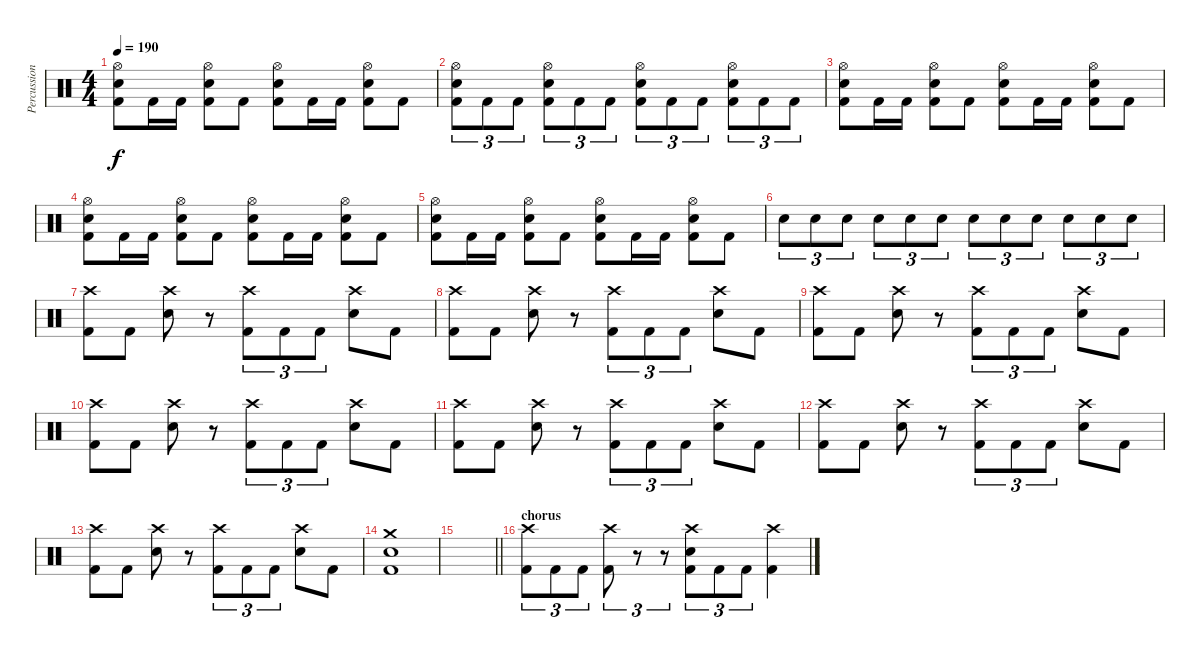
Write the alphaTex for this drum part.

\track ("Percussion" "Percussion") {instrument percussion}
\staff {score}
\articulation defaults
\ts (4 4)
\tempo 190
\clef neutral
\ks c
("Hi-Hat (open)" "Electric Snare (hit)" "Kick (hit) 2").8{dy f} "Kick (hit) 2".16 "Kick (hit) 2".16 ("Hi-Hat (open)" "Electric Snare (hit)" "Kick (hit) 2").8 "Kick (hit) 2".8 ("Hi-Hat (open)" "Electric Snare (hit)" "Kick (hit) 2").8 "Kick (hit) 2".16 "Kick (hit) 2".16 ("Hi-Hat (open)" "Electric Snare (hit)" "Kick (hit) 2").8 "Kick (hit) 2".8 |
("Hi-Hat (open)" "Electric Snare (hit)" "Kick (hit) 2").8{tu (3 2)} "Kick (hit) 2".8{tu (3 2)} "Kick (hit) 2".8{tu (3 2)} ("Hi-Hat (open)" "Electric Snare (hit)" "Kick (hit) 2").8{tu (3 2)} "Kick (hit) 2".8{tu (3 2)} "Kick (hit) 2".8{tu (3 2)} ("Hi-Hat (open)" "Electric Snare (hit)" "Kick (hit) 2").8{tu (3 2)} "Kick (hit) 2".8{tu (3 2)} "Kick (hit) 2".8{tu (3 2)} ("Hi-Hat (open)" "Electric Snare (hit)" "Kick (hit) 2").8{tu (3 2)} "Kick (hit) 2".8{tu (3 2)} "Kick (hit) 2".8{tu (3 2)} |
("Hi-Hat (open)" "Electric Snare (hit)" "Kick (hit) 2").8 "Kick (hit) 2".16 "Kick (hit) 2".16 ("Hi-Hat (open)" "Electric Snare (hit)" "Kick (hit) 2").8 "Kick (hit) 2".8 ("Hi-Hat (open)" "Electric Snare (hit)" "Kick (hit) 2").8 "Kick (hit) 2".16 "Kick (hit) 2".16 ("Hi-Hat (open)" "Electric Snare (hit)" "Kick (hit) 2").8 "Kick (hit) 2".8 |
("Hi-Hat (open)" "Electric Snare (hit)" "Kick (hit) 2").8 "Kick (hit) 2".16 "Kick (hit) 2".16 ("Hi-Hat (open)" "Electric Snare (hit)" "Kick (hit) 2").8 "Kick (hit) 2".8 ("Hi-Hat (open)" "Electric Snare (hit)" "Kick (hit) 2").8 "Kick (hit) 2".16 "Kick (hit) 2".16 ("Hi-Hat (open)" "Electric Snare (hit)" "Kick (hit) 2").8 "Kick (hit) 2".8 |
("Hi-Hat (open)" "Electric Snare (hit)" "Kick (hit) 2").8 "Kick (hit) 2".16 "Kick (hit) 2".16 ("Hi-Hat (open)" "Electric Snare (hit)" "Kick (hit) 2").8 "Kick (hit) 2".8 ("Hi-Hat (open)" "Electric Snare (hit)" "Kick (hit) 2").8 "Kick (hit) 2".16 "Kick (hit) 2".16 ("Hi-Hat (open)" "Electric Snare (hit)" "Kick (hit) 2").8 "Kick (hit) 2".8 |
"Electric Snare (hit)".8{tu (3 2)} "Electric Snare (hit)".8{tu (3 2)} "Electric Snare (hit)".8{tu (3 2)} "Electric Snare (hit)".8{tu (3 2)} "Electric Snare (hit)".8{tu (3 2)} "Electric Snare (hit)".8{tu (3 2)} "Electric Snare (hit)".8{tu (3 2)} "Electric Snare (hit)".8{tu (3 2)} "Electric Snare (hit)".8{tu (3 2)} "Electric Snare (hit)".8{tu (3 2)} "Electric Snare (hit)".8{tu (3 2)} "Electric Snare (hit)".8{tu (3 2)} |
("Crash high (hit)" "Kick (hit) 2").8 "Kick (hit) 2".8 ("Crash high (hit)" "Electric Snare (hit)").8 r.8 ("Crash high (hit)" "Kick (hit) 2").8{tu (3 2)} "Kick (hit) 2".8{tu (3 2)} "Kick (hit) 2".8{tu (3 2)} ("Crash high (hit)" "Electric Snare (hit)").8 "Kick (hit) 2".8 |
("Crash high (hit)" "Kick (hit) 2").8 "Kick (hit) 2".8 ("Crash high (hit)" "Electric Snare (hit)").8 r.8 ("Crash high (hit)" "Kick (hit) 2").8{tu (3 2)} "Kick (hit) 2".8{tu (3 2)} "Kick (hit) 2".8{tu (3 2)} ("Crash high (hit)" "Electric Snare (hit)").8 "Kick (hit) 2".8 |
("Crash high (hit)" "Kick (hit) 2").8 "Kick (hit) 2".8 ("Crash high (hit)" "Electric Snare (hit)").8 r.8 ("Crash high (hit)" "Kick (hit) 2").8{tu (3 2)} "Kick (hit) 2".8{tu (3 2)} "Kick (hit) 2".8{tu (3 2)} ("Crash high (hit)" "Electric Snare (hit)").8 "Kick (hit) 2".8 |
("Crash high (hit)" "Kick (hit) 2").8 "Kick (hit) 2".8 ("Crash high (hit)" "Electric Snare (hit)").8 r.8 ("Crash high (hit)" "Kick (hit) 2").8{tu (3 2)} "Kick (hit) 2".8{tu (3 2)} "Kick (hit) 2".8{tu (3 2)} ("Crash high (hit)" "Electric Snare (hit)").8 "Kick (hit) 2".8 |
("Crash high (hit)" "Kick (hit) 2").8 "Kick (hit) 2".8 ("Crash high (hit)" "Electric Snare (hit)").8 r.8 ("Crash high (hit)" "Kick (hit) 2").8{tu (3 2)} "Kick (hit) 2".8{tu (3 2)} "Kick (hit) 2".8{tu (3 2)} ("Crash high (hit)" "Electric Snare (hit)").8 "Kick (hit) 2".8 |
("Crash high (hit)" "Kick (hit) 2").8 "Kick (hit) 2".8 ("Crash high (hit)" "Electric Snare (hit)").8 r.8 ("Crash high (hit)" "Kick (hit) 2").8{tu (3 2)} "Kick (hit) 2".8{tu (3 2)} "Kick (hit) 2".8{tu (3 2)} ("Crash high (hit)" "Electric Snare (hit)").8 "Kick (hit) 2".8 |
("Crash high (hit)" "Kick (hit) 2").8 "Kick (hit) 2".8 ("Crash high (hit)" "Electric Snare (hit)").8 r.8 ("Crash high (hit)" "Kick (hit) 2").8{tu (3 2)} "Kick (hit) 2".8{tu (3 2)} "Kick (hit) 2".8{tu (3 2)} ("Crash high (hit)" "Electric Snare (hit)").8 "Kick (hit) 2".8 |
("Crash medium (hit)" "Electric Snare (hit)" "Kick (hit) 2").1 |
\barLineRight lightlight
|
\section ("" "chorus")
("Crash high (hit)" "Kick (hit) 2").8{tu (3 2)} "Kick (hit) 2".8{tu (3 2)} "Kick (hit) 2".8{tu (3 2)} ("Crash high (hit)" "Kick (hit) 2").8{tu (3 2)} r.8{tu (3 2)} r.8{tu (3 2)} ("Crash high (hit)" "Electric Snare (hit)" "Kick (hit) 2").8{tu (3 2)} "Kick (hit) 2".8{tu (3 2)} "Kick (hit) 2".8{tu (3 2)} ("Crash high (hit)" "Kick (hit) 2").4
